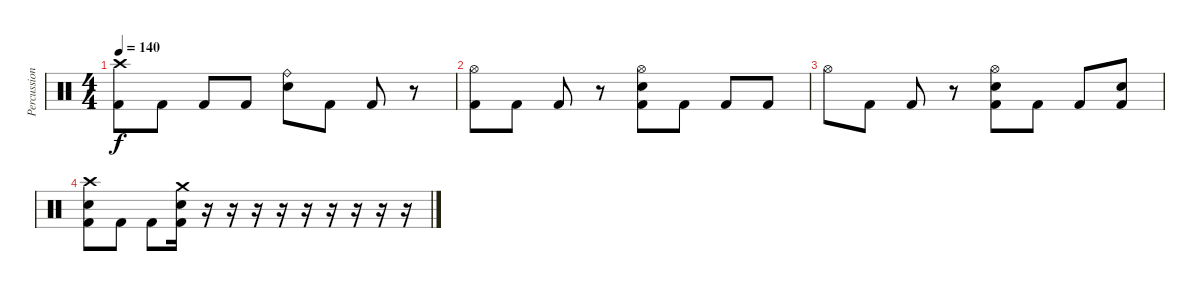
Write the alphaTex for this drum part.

\track ("Percussion" "Percussion") {instrument percussion}
\staff {score}
\articulation defaults
\ts (4 4)
\tempo 140
\clef neutral
\ks c
("Crash high (hit)" "Kick (hit) 2").8{dy f} "Kick (hit) 2".8 "Kick (hit) 2".8 "Kick (hit) 2".8 ("Ride (bell)" "Snare (hit) 2").8 "Kick (hit) 2".8 "Kick (hit) 2".8 r.8 |
("Hi-Hat (open)" "Kick (hit) 2").8 "Kick (hit) 2".8 "Kick (hit) 2".8 r.8 ("Hi-Hat (open)" "Snare (hit) 2" "Kick (hit) 2").8 "Kick (hit) 2".8 "Kick (hit) 2".8 "Kick (hit) 2".8 |
"Hi-Hat (open)".8 "Kick (hit) 2".8 "Kick (hit) 2".8 r.8 ("Hi-Hat (open)" "Snare (hit) 2" "Kick (hit) 2").8 "Kick (hit) 2".8 "Kick (hit) 2".8 ("Snare (hit) 2" "Kick (hit) 2").8 |
("Crash high (hit)" "Snare (hit) 2" "Kick (hit) 2").8 "Kick (hit) 2".8 "Kick (hit) 2".8 ("Crash medium (hit)" "Snare (hit) 2" "Kick (hit) 2").16 r.16 r.16 r.16 r.16 r.16 r.16 r.16 r.16 r.16
